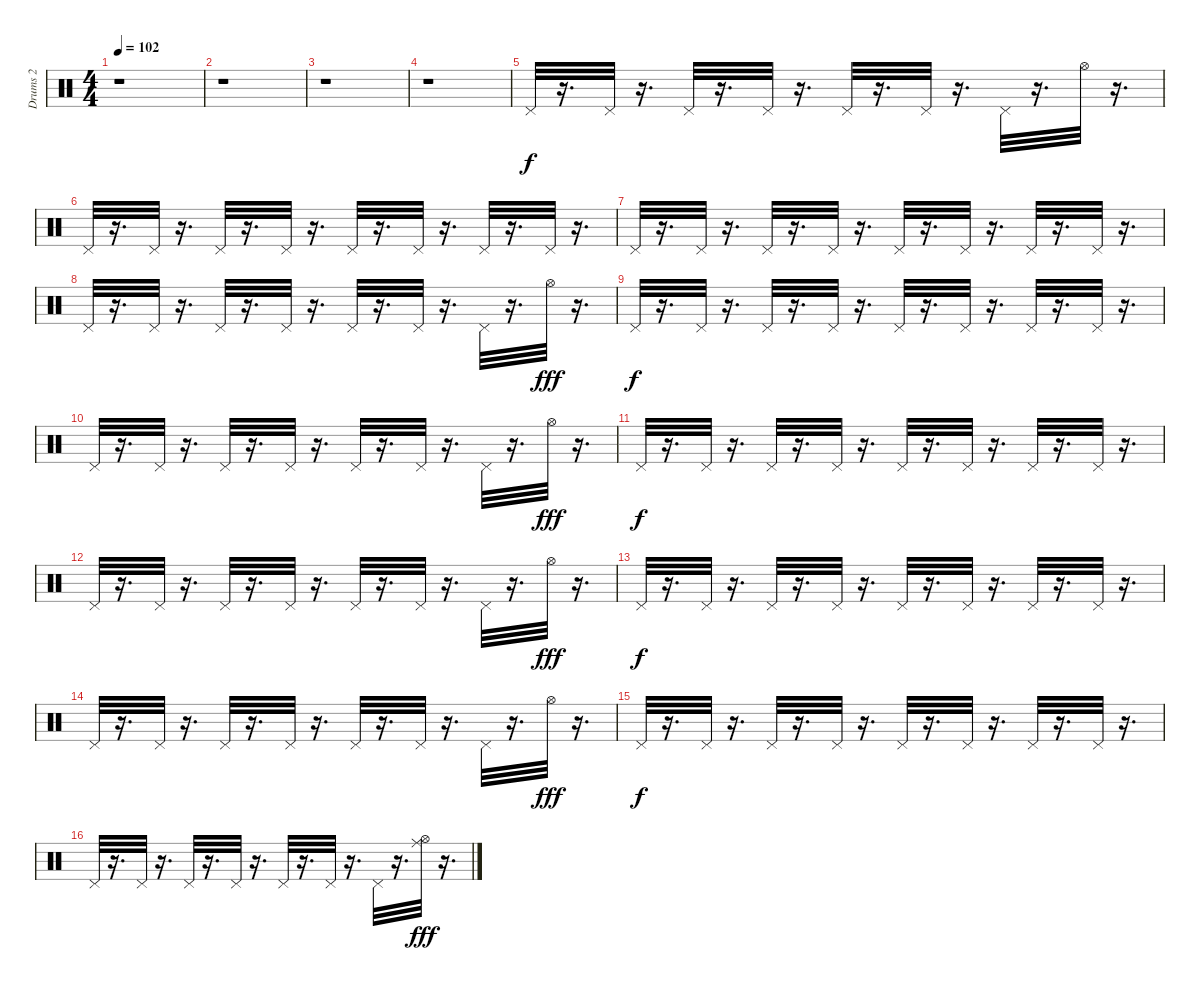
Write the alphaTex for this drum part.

\track ("Drums 2" "Drums 2") {instrument percussion}
\staff {score}
\articulation defaults
\ts (4 4)
\tempo 102
\clef neutral
\ks c
r.1{dy f} |
r.1 |
r.1 |
r.1 |
"Pedal Hi-Hat (hit)".32 r.16{d} "Pedal Hi-Hat (hit)".32 r.16{d} "Pedal Hi-Hat (hit)".32 r.16{d} "Pedal Hi-Hat (hit)".32 r.16{d} "Pedal Hi-Hat (hit)".32 r.16{d} "Pedal Hi-Hat (hit)".32 r.16{d} "Pedal Hi-Hat (hit)".32 r.16{d} "Hi-Hat (open)".32 r.16{d} |
"Pedal Hi-Hat (hit)".32 r.16{d} "Pedal Hi-Hat (hit)".32 r.16{d} "Pedal Hi-Hat (hit)".32 r.16{d} "Pedal Hi-Hat (hit)".32 r.16{d} "Pedal Hi-Hat (hit)".32 r.16{d} "Pedal Hi-Hat (hit)".32 r.16{d} "Pedal Hi-Hat (hit)".32 r.16{d} "Pedal Hi-Hat (hit)".32 r.16{d} |
"Pedal Hi-Hat (hit)".32 r.16{d} "Pedal Hi-Hat (hit)".32 r.16{d} "Pedal Hi-Hat (hit)".32 r.16{d} "Pedal Hi-Hat (hit)".32 r.16{d} "Pedal Hi-Hat (hit)".32 r.16{d} "Pedal Hi-Hat (hit)".32 r.16{d} "Pedal Hi-Hat (hit)".32 r.16{d} "Pedal Hi-Hat (hit)".32 r.16{d} |
"Pedal Hi-Hat (hit)".32 r.16{d} "Pedal Hi-Hat (hit)".32 r.16{d} "Pedal Hi-Hat (hit)".32 r.16{d} "Pedal Hi-Hat (hit)".32 r.16{d} "Pedal Hi-Hat (hit)".32 r.16{d} "Pedal Hi-Hat (hit)".32 r.16{d} "Pedal Hi-Hat (hit)".32 r.16{d} "Hi-Hat (open)".32{dy fff} r.16{d} |
"Pedal Hi-Hat (hit)".32{dy f} r.16{d} "Pedal Hi-Hat (hit)".32 r.16{d} "Pedal Hi-Hat (hit)".32 r.16{d} "Pedal Hi-Hat (hit)".32 r.16{d} "Pedal Hi-Hat (hit)".32 r.16{d} "Pedal Hi-Hat (hit)".32 r.16{d} "Pedal Hi-Hat (hit)".32 r.16{d} "Pedal Hi-Hat (hit)".32 r.16{d} |
"Pedal Hi-Hat (hit)".32 r.16{d} "Pedal Hi-Hat (hit)".32 r.16{d} "Pedal Hi-Hat (hit)".32 r.16{d} "Pedal Hi-Hat (hit)".32 r.16{d} "Pedal Hi-Hat (hit)".32 r.16{d} "Pedal Hi-Hat (hit)".32 r.16{d} "Pedal Hi-Hat (hit)".32 r.16{d} "Hi-Hat (open)".32{dy fff} r.16{d} |
"Pedal Hi-Hat (hit)".32{dy f} r.16{d} "Pedal Hi-Hat (hit)".32 r.16{d} "Pedal Hi-Hat (hit)".32 r.16{d} "Pedal Hi-Hat (hit)".32 r.16{d} "Pedal Hi-Hat (hit)".32 r.16{d} "Pedal Hi-Hat (hit)".32 r.16{d} "Pedal Hi-Hat (hit)".32 r.16{d} "Pedal Hi-Hat (hit)".32 r.16{d} |
"Pedal Hi-Hat (hit)".32 r.16{d} "Pedal Hi-Hat (hit)".32 r.16{d} "Pedal Hi-Hat (hit)".32 r.16{d} "Pedal Hi-Hat (hit)".32 r.16{d} "Pedal Hi-Hat (hit)".32 r.16{d} "Pedal Hi-Hat (hit)".32 r.16{d} "Pedal Hi-Hat (hit)".32 r.16{d} "Hi-Hat (open)".32{dy fff} r.16{d} |
"Pedal Hi-Hat (hit)".32{dy f} r.16{d} "Pedal Hi-Hat (hit)".32 r.16{d} "Pedal Hi-Hat (hit)".32 r.16{d} "Pedal Hi-Hat (hit)".32 r.16{d} "Pedal Hi-Hat (hit)".32 r.16{d} "Pedal Hi-Hat (hit)".32 r.16{d} "Pedal Hi-Hat (hit)".32 r.16{d} "Pedal Hi-Hat (hit)".32 r.16{d} |
"Pedal Hi-Hat (hit)".32 r.16{d} "Pedal Hi-Hat (hit)".32 r.16{d} "Pedal Hi-Hat (hit)".32 r.16{d} "Pedal Hi-Hat (hit)".32 r.16{d} "Pedal Hi-Hat (hit)".32 r.16{d} "Pedal Hi-Hat (hit)".32 r.16{d} "Pedal Hi-Hat (hit)".32 r.16{d} "Hi-Hat (open)".32{dy fff} r.16{d} |
"Pedal Hi-Hat (hit)".32{dy f} r.16{d} "Pedal Hi-Hat (hit)".32 r.16{d} "Pedal Hi-Hat (hit)".32 r.16{d} "Pedal Hi-Hat (hit)".32 r.16{d} "Pedal Hi-Hat (hit)".32 r.16{d} "Pedal Hi-Hat (hit)".32 r.16{d} "Pedal Hi-Hat (hit)".32 r.16{d} "Pedal Hi-Hat (hit)".32 r.16{d} |
"Pedal Hi-Hat (hit)".32 r.16{d} "Pedal Hi-Hat (hit)".32 r.16{d} "Pedal Hi-Hat (hit)".32 r.16{d} "Pedal Hi-Hat (hit)".32 r.16{d} "Pedal Hi-Hat (hit)".32 r.16{d} "Pedal Hi-Hat (hit)".32 r.16{d} "Pedal Hi-Hat (hit)".32 r.16{d} ("Ride (middle)" "Hi-Hat (open)").32{dy fff} r.16{d}
